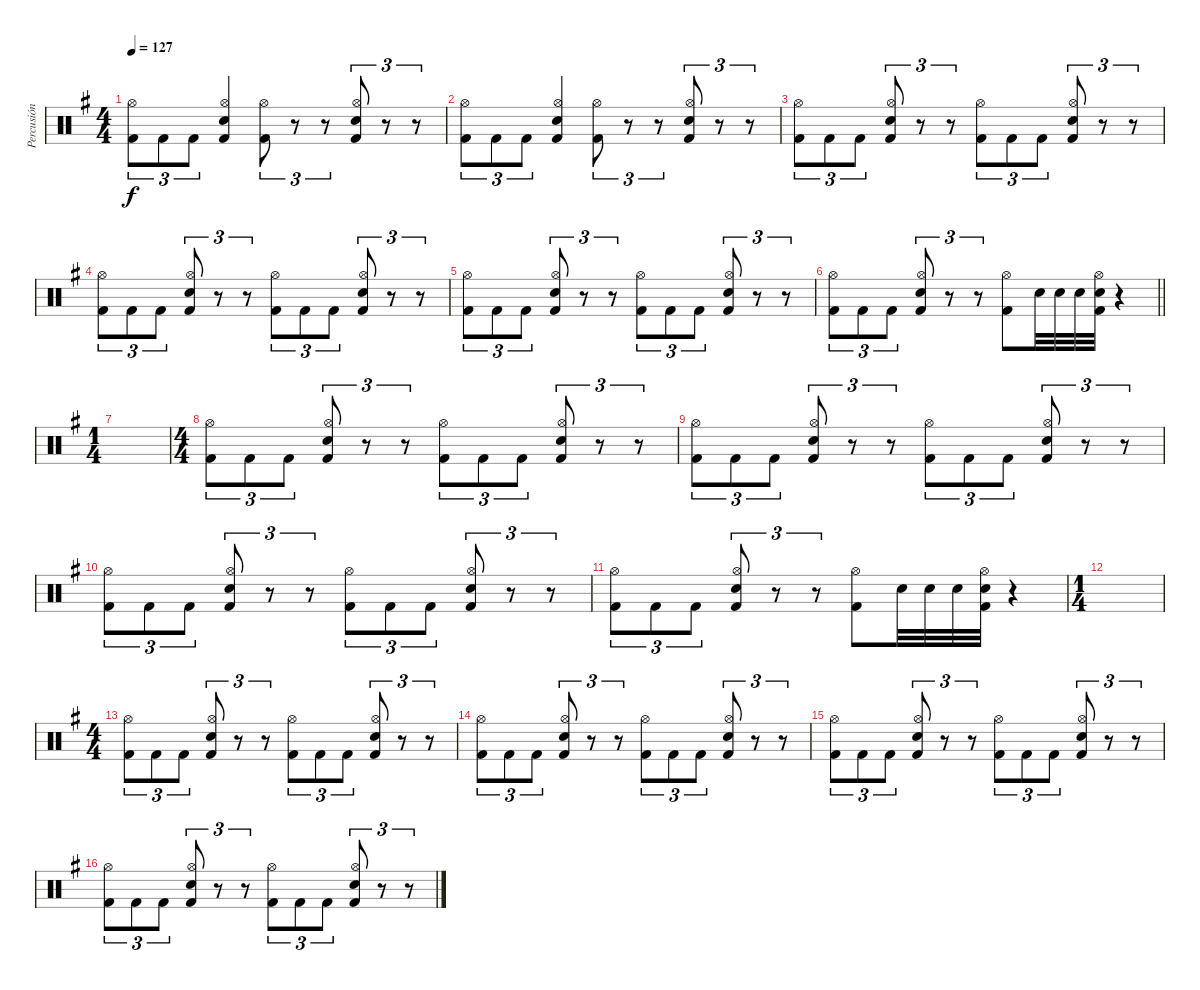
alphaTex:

\track ("Percusión" "Percusión") {instrument percussion}
\staff {score}
\articulation defaults
\ts (4 4)
\tempo 127
\clef neutral
\ks eminor
("Kick (hit) 2" "Hi-Hat (open)").8{tu (3 2) dy f} "Kick (hit) 2".8{tu (3 2)} "Kick (hit) 2".8{tu (3 2)} ("Kick (hit) 2" "Hi-Hat (open)" "Electric Snare (hit)").4 ("Hi-Hat (open)" "Kick (hit) 2").8{tu (3 2)} r.8{tu (3 2)} r.8{tu (3 2)} ("Hi-Hat (open)" "Kick (hit) 2" "Electric Snare (hit)").8{tu (3 2)} r.8{tu (3 2)} r.8{tu (3 2)} |
("Kick (hit) 2" "Hi-Hat (open)").8{tu (3 2)} "Kick (hit) 2".8{tu (3 2)} "Kick (hit) 2".8{tu (3 2)} ("Kick (hit) 2" "Hi-Hat (open)" "Electric Snare (hit)").4 ("Hi-Hat (open)" "Kick (hit) 2").8{tu (3 2)} r.8{tu (3 2)} r.8{tu (3 2)} ("Hi-Hat (open)" "Kick (hit) 2" "Electric Snare (hit)").8{tu (3 2)} r.8{tu (3 2)} r.8{tu (3 2)} |
("Hi-Hat (open)" "Kick (hit) 2").8{tu (3 2)} "Kick (hit) 2".8{tu (3 2)} "Kick (hit) 2".8{tu (3 2)} ("Hi-Hat (open)" "Kick (hit) 2" "Electric Snare (hit)").8{tu (3 2)} r.8{tu (3 2)} r.8{tu (3 2)} ("Hi-Hat (open)" "Kick (hit) 2").8{tu (3 2)} "Kick (hit) 2".8{tu (3 2)} "Kick (hit) 2".8{tu (3 2)} ("Hi-Hat (open)" "Kick (hit) 2" "Electric Snare (hit)").8{tu (3 2)} r.8{tu (3 2)} r.8{tu (3 2)} |
("Hi-Hat (open)" "Kick (hit) 2").8{tu (3 2)} "Kick (hit) 2".8{tu (3 2)} "Kick (hit) 2".8{tu (3 2)} ("Hi-Hat (open)" "Kick (hit) 2" "Electric Snare (hit)").8{tu (3 2)} r.8{tu (3 2)} r.8{tu (3 2)} ("Hi-Hat (open)" "Kick (hit) 2").8{tu (3 2)} "Kick (hit) 2".8{tu (3 2)} "Kick (hit) 2".8{tu (3 2)} ("Hi-Hat (open)" "Kick (hit) 2" "Electric Snare (hit)").8{tu (3 2)} r.8{tu (3 2)} r.8{tu (3 2)} |
("Hi-Hat (open)" "Kick (hit) 2").8{tu (3 2)} "Kick (hit) 2".8{tu (3 2)} "Kick (hit) 2".8{tu (3 2)} ("Hi-Hat (open)" "Kick (hit) 2" "Electric Snare (hit)").8{tu (3 2)} r.8{tu (3 2)} r.8{tu (3 2)} ("Hi-Hat (open)" "Kick (hit) 2").8{tu (3 2)} "Kick (hit) 2".8{tu (3 2)} "Kick (hit) 2".8{tu (3 2)} ("Hi-Hat (open)" "Kick (hit) 2" "Electric Snare (hit)").8{tu (3 2)} r.8{tu (3 2)} r.8{tu (3 2)} |
\barLineRight lightlight
("Hi-Hat (open)" "Kick (hit) 2").8{tu (3 2)} "Kick (hit) 2".8{tu (3 2)} "Kick (hit) 2".8{tu (3 2)} ("Hi-Hat (open)" "Kick (hit) 2" "Electric Snare (hit)").8{tu (3 2)} r.8{tu (3 2)} r.8{tu (3 2)} ("Hi-Hat (open)" "Kick (hit) 2").8 "Electric Snare (hit)".32 "Electric Snare (hit)".32 "Electric Snare (hit)".32 ("Electric Snare (hit)" "Kick (hit) 2" "Hi-Hat (open)").32 r.4 |
\ts (1 4)
|
\ts (4 4)
("Hi-Hat (open)" "Kick (hit) 2").8{tu (3 2)} "Kick (hit) 2".8{tu (3 2)} "Kick (hit) 2".8{tu (3 2)} ("Hi-Hat (open)" "Kick (hit) 2" "Electric Snare (hit)").8{tu (3 2)} r.8{tu (3 2)} r.8{tu (3 2)} ("Hi-Hat (open)" "Kick (hit) 2").8{tu (3 2)} "Kick (hit) 2".8{tu (3 2)} "Kick (hit) 2".8{tu (3 2)} ("Hi-Hat (open)" "Kick (hit) 2" "Electric Snare (hit)").8{tu (3 2)} r.8{tu (3 2)} r.8{tu (3 2)} |
("Hi-Hat (open)" "Kick (hit) 2").8{tu (3 2)} "Kick (hit) 2".8{tu (3 2)} "Kick (hit) 2".8{tu (3 2)} ("Hi-Hat (open)" "Kick (hit) 2" "Electric Snare (hit)").8{tu (3 2)} r.8{tu (3 2)} r.8{tu (3 2)} ("Hi-Hat (open)" "Kick (hit) 2").8{tu (3 2)} "Kick (hit) 2".8{tu (3 2)} "Kick (hit) 2".8{tu (3 2)} ("Hi-Hat (open)" "Kick (hit) 2" "Electric Snare (hit)").8{tu (3 2)} r.8{tu (3 2)} r.8{tu (3 2)} |
("Hi-Hat (open)" "Kick (hit) 2").8{tu (3 2)} "Kick (hit) 2".8{tu (3 2)} "Kick (hit) 2".8{tu (3 2)} ("Hi-Hat (open)" "Kick (hit) 2" "Electric Snare (hit)").8{tu (3 2)} r.8{tu (3 2)} r.8{tu (3 2)} ("Hi-Hat (open)" "Kick (hit) 2").8{tu (3 2)} "Kick (hit) 2".8{tu (3 2)} "Kick (hit) 2".8{tu (3 2)} ("Hi-Hat (open)" "Kick (hit) 2" "Electric Snare (hit)").8{tu (3 2)} r.8{tu (3 2)} r.8{tu (3 2)} |
("Hi-Hat (open)" "Kick (hit) 2").8{tu (3 2)} "Kick (hit) 2".8{tu (3 2)} "Kick (hit) 2".8{tu (3 2)} ("Hi-Hat (open)" "Kick (hit) 2" "Electric Snare (hit)").8{tu (3 2)} r.8{tu (3 2)} r.8{tu (3 2)} ("Hi-Hat (open)" "Kick (hit) 2").8 "Electric Snare (hit)".32 "Electric Snare (hit)".32 "Electric Snare (hit)".32 ("Electric Snare (hit)" "Kick (hit) 2" "Hi-Hat (open)").32 r.4 |
\ts (1 4)
|
\ts (4 4)
("Hi-Hat (open)" "Kick (hit) 2").8{tu (3 2)} "Kick (hit) 2".8{tu (3 2)} "Kick (hit) 2".8{tu (3 2)} ("Hi-Hat (open)" "Kick (hit) 2" "Electric Snare (hit)").8{tu (3 2)} r.8{tu (3 2)} r.8{tu (3 2)} ("Hi-Hat (open)" "Kick (hit) 2").8{tu (3 2)} "Kick (hit) 2".8{tu (3 2)} "Kick (hit) 2".8{tu (3 2)} ("Hi-Hat (open)" "Kick (hit) 2" "Electric Snare (hit)").8{tu (3 2)} r.8{tu (3 2)} r.8{tu (3 2)} |
("Hi-Hat (open)" "Kick (hit) 2").8{tu (3 2)} "Kick (hit) 2".8{tu (3 2)} "Kick (hit) 2".8{tu (3 2)} ("Hi-Hat (open)" "Kick (hit) 2" "Electric Snare (hit)").8{tu (3 2)} r.8{tu (3 2)} r.8{tu (3 2)} ("Hi-Hat (open)" "Kick (hit) 2").8{tu (3 2)} "Kick (hit) 2".8{tu (3 2)} "Kick (hit) 2".8{tu (3 2)} ("Hi-Hat (open)" "Kick (hit) 2" "Electric Snare (hit)").8{tu (3 2)} r.8{tu (3 2)} r.8{tu (3 2)} |
("Hi-Hat (open)" "Kick (hit) 2").8{tu (3 2)} "Kick (hit) 2".8{tu (3 2)} "Kick (hit) 2".8{tu (3 2)} ("Hi-Hat (open)" "Kick (hit) 2" "Electric Snare (hit)").8{tu (3 2)} r.8{tu (3 2)} r.8{tu (3 2)} ("Hi-Hat (open)" "Kick (hit) 2").8{tu (3 2)} "Kick (hit) 2".8{tu (3 2)} "Kick (hit) 2".8{tu (3 2)} ("Hi-Hat (open)" "Kick (hit) 2" "Electric Snare (hit)").8{tu (3 2)} r.8{tu (3 2)} r.8{tu (3 2)} |
("Hi-Hat (open)" "Kick (hit) 2").8{tu (3 2)} "Kick (hit) 2".8{tu (3 2)} "Kick (hit) 2".8{tu (3 2)} ("Hi-Hat (open)" "Kick (hit) 2" "Electric Snare (hit)").8{tu (3 2)} r.8{tu (3 2)} r.8{tu (3 2)} ("Hi-Hat (open)" "Kick (hit) 2").8{tu (3 2)} "Kick (hit) 2".8{tu (3 2)} "Kick (hit) 2".8{tu (3 2)} ("Hi-Hat (open)" "Kick (hit) 2" "Electric Snare (hit)").8{tu (3 2)} r.8{tu (3 2)} r.8{tu (3 2)}
